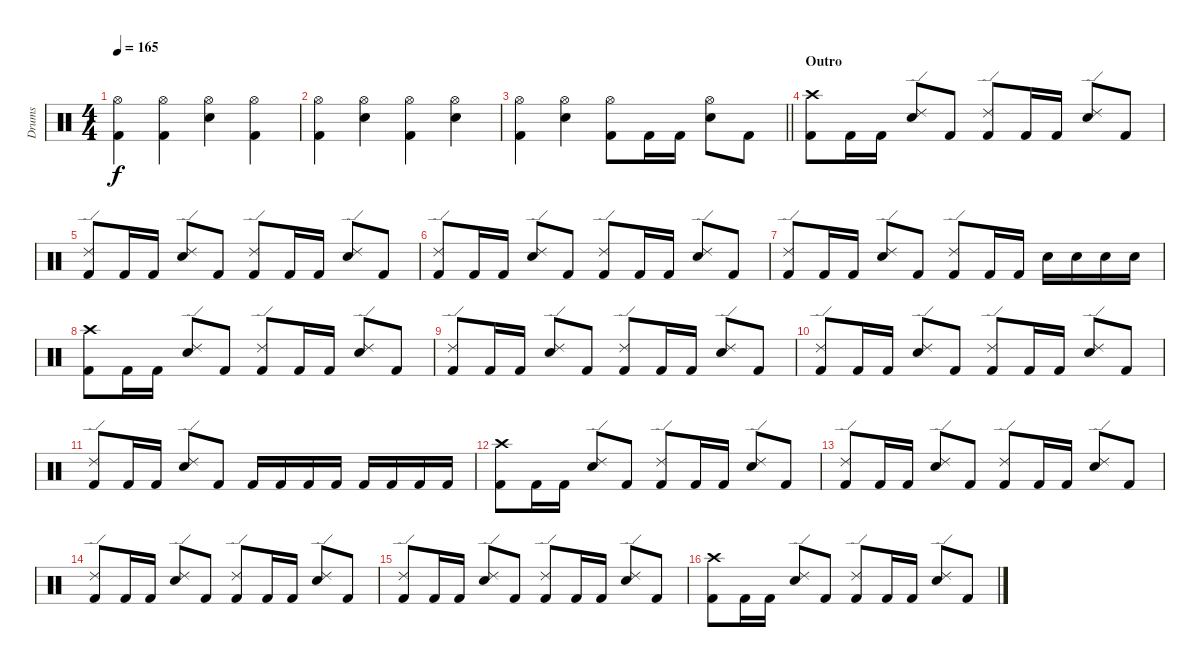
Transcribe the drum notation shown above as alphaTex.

\track ("Drums" "Drums") {instrument percussion}
\staff {score}
\articulation defaults
\ts (4 4)
\tempo 165
\clef neutral
\ks c
("Hi-Hat (open)" "Kick (hit) 2").4{dy f} ("Hi-Hat (open)" "Kick (hit) 2").4 ("Hi-Hat (open)" "Snare (hit) 2").4 ("Hi-Hat (open)" "Kick (hit) 2").4 |
("Hi-Hat (open)" "Kick (hit) 2").4 ("Hi-Hat (open)" "Snare (hit) 2").4 ("Hi-Hat (open)" "Kick (hit) 2").4 ("Hi-Hat (open)" "Snare (hit) 2").4 |
\barLineRight lightlight
("Hi-Hat (open)" "Kick (hit) 2").4 ("Hi-Hat (open)" "Snare (hit) 2").4 ("Hi-Hat (open)" "Kick (hit) 2").8 "Kick (hit) 2".16 "Kick (hit) 2".16 ("Hi-Hat (open)" "Snare (hit) 2").8 "Kick (hit) 2".8 |
\section ("" "Outro")
("Crash high (hit)" "Kick (hit) 2").8 "Kick (hit) 2".16 "Kick (hit) 2".16 ("Ride (edge) 2" "Snare (hit) 2").8 "Kick (hit) 2".8 ("Ride (edge) 2" "Kick (hit) 2").8 "Kick (hit) 2".16 "Kick (hit) 2".16 ("Ride (edge) 2" "Snare (hit) 2").8 "Kick (hit) 2".8 |
("Ride (edge) 2" "Kick (hit) 2").8 "Kick (hit) 2".16 "Kick (hit) 2".16 ("Ride (edge) 2" "Snare (hit) 2").8 "Kick (hit) 2".8 ("Ride (edge) 2" "Kick (hit) 2").8 "Kick (hit) 2".16 "Kick (hit) 2".16 ("Ride (edge) 2" "Snare (hit) 2").8 "Kick (hit) 2".8 |
("Ride (edge) 2" "Kick (hit) 2").8 "Kick (hit) 2".16 "Kick (hit) 2".16 ("Ride (edge) 2" "Snare (hit) 2").8 "Kick (hit) 2".8 ("Ride (edge) 2" "Kick (hit) 2").8 "Kick (hit) 2".16 "Kick (hit) 2".16 ("Ride (edge) 2" "Snare (hit) 2").8 "Kick (hit) 2".8 |
("Ride (edge) 2" "Kick (hit) 2").8 "Kick (hit) 2".16 "Kick (hit) 2".16 ("Ride (edge) 2" "Snare (hit) 2").8 "Kick (hit) 2".8 ("Ride (edge) 2" "Kick (hit) 2").8 "Kick (hit) 2".16 "Kick (hit) 2".16 "Snare (hit) 2".16 "Snare (hit) 2".16 "Snare (hit) 2".16 "Snare (hit) 2".16 |
("Crash high (hit)" "Kick (hit) 2").8 "Kick (hit) 2".16 "Kick (hit) 2".16 ("Ride (edge) 2" "Snare (hit) 2").8 "Kick (hit) 2".8 ("Ride (edge) 2" "Kick (hit) 2").8 "Kick (hit) 2".16 "Kick (hit) 2".16 ("Ride (edge) 2" "Snare (hit) 2").8 "Kick (hit) 2".8 |
("Ride (edge) 2" "Kick (hit) 2").8 "Kick (hit) 2".16 "Kick (hit) 2".16 ("Ride (edge) 2" "Snare (hit) 2").8 "Kick (hit) 2".8 ("Ride (edge) 2" "Kick (hit) 2").8 "Kick (hit) 2".16 "Kick (hit) 2".16 ("Ride (edge) 2" "Snare (hit) 2").8 "Kick (hit) 2".8 |
("Ride (edge) 2" "Kick (hit) 2").8 "Kick (hit) 2".16 "Kick (hit) 2".16 ("Ride (edge) 2" "Snare (hit) 2").8 "Kick (hit) 2".8 ("Ride (edge) 2" "Kick (hit) 2").8 "Kick (hit) 2".16 "Kick (hit) 2".16 ("Ride (edge) 2" "Snare (hit) 2").8 "Kick (hit) 2".8 |
("Ride (edge) 2" "Kick (hit) 2").8 "Kick (hit) 2".16 "Kick (hit) 2".16 ("Ride (edge) 2" "Snare (hit) 2").8 "Kick (hit) 2".8 "Kick (hit) 2".16 "Kick (hit) 2".16 "Kick (hit) 2".16 "Kick (hit) 2".16 "Kick (hit) 2".16 "Kick (hit) 2".16 "Kick (hit) 2".16 "Kick (hit) 2".16 |
("Crash high (hit)" "Kick (hit) 2").8 "Kick (hit) 2".16 "Kick (hit) 2".16 ("Ride (edge) 2" "Snare (hit) 2").8 "Kick (hit) 2".8 ("Ride (edge) 2" "Kick (hit) 2").8 "Kick (hit) 2".16 "Kick (hit) 2".16 ("Ride (edge) 2" "Snare (hit) 2").8 "Kick (hit) 2".8 |
("Ride (edge) 2" "Kick (hit) 2").8 "Kick (hit) 2".16 "Kick (hit) 2".16 ("Ride (edge) 2" "Snare (hit) 2").8 "Kick (hit) 2".8 ("Ride (edge) 2" "Kick (hit) 2").8 "Kick (hit) 2".16 "Kick (hit) 2".16 ("Ride (edge) 2" "Snare (hit) 2").8 "Kick (hit) 2".8 |
("Ride (edge) 2" "Kick (hit) 2").8 "Kick (hit) 2".16 "Kick (hit) 2".16 ("Ride (edge) 2" "Snare (hit) 2").8 "Kick (hit) 2".8 ("Ride (edge) 2" "Kick (hit) 2").8 "Kick (hit) 2".16 "Kick (hit) 2".16 ("Ride (edge) 2" "Snare (hit) 2").8 "Kick (hit) 2".8 |
("Ride (edge) 2" "Kick (hit) 2").8 "Kick (hit) 2".16 "Kick (hit) 2".16 ("Ride (edge) 2" "Snare (hit) 2").8 "Kick (hit) 2".8 ("Ride (edge) 2" "Kick (hit) 2").8 "Kick (hit) 2".16 "Kick (hit) 2".16 ("Ride (edge) 2" "Snare (hit) 2").8 "Kick (hit) 2".8 |
("Crash high (hit)" "Kick (hit) 2").8 "Kick (hit) 2".16 "Kick (hit) 2".16 ("Ride (edge) 2" "Snare (hit) 2").8 "Kick (hit) 2".8 ("Ride (edge) 2" "Kick (hit) 2").8 "Kick (hit) 2".16 "Kick (hit) 2".16 ("Ride (edge) 2" "Snare (hit) 2").8 "Kick (hit) 2".8
